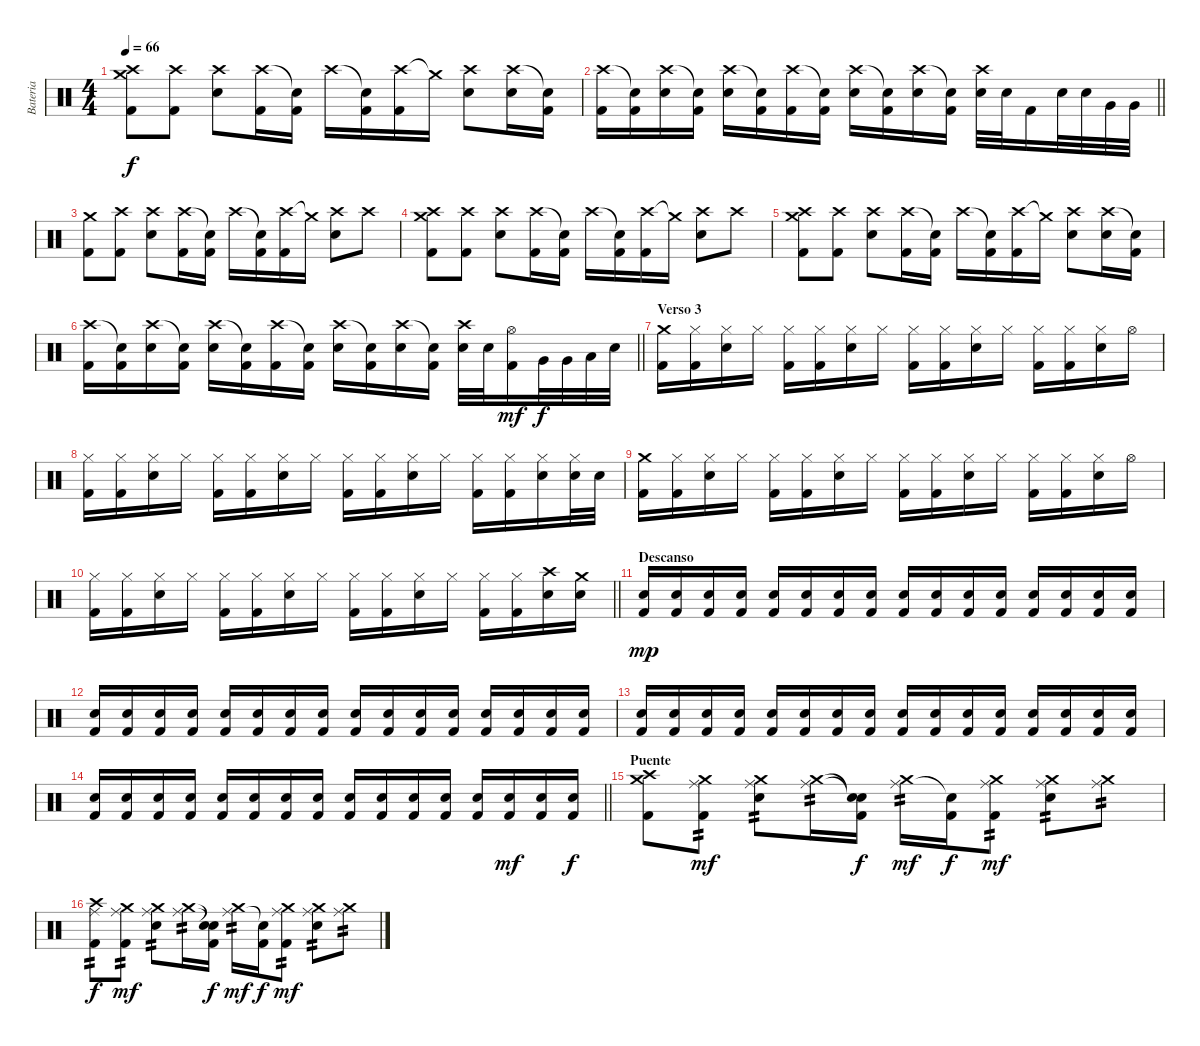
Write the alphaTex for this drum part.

\track ("Bateria" "Bateria") {instrument percussion}
\staff {score}
\articulation defaults
\ts (4 4)
\tempo 66
\clef neutral
\ks c
("Crash high (hit)" "Crash medium (hit)" "Kick (hit) 2").8{dy f} ("Crash high (hit)" "Kick (hit) 2").8 ("Crash high (hit)" "Electric Snare (hit)").8 ("Crash high (hit)" "Kick (hit) 2").16 ("Snare (hit)"{t} "Kick (hit) 2").16 "Crash high (hit)".16 ("Snare (hit)"{t} "Kick (hit) 2").16 ("Crash high (hit)" "Kick (hit) 2").16 "Crash medium (hit)"{t}.16 ("Crash high (hit)" "Electric Snare (hit)").8 ("Crash high (hit)" "Electric Snare (hit)").16 ("Snare (hit)"{t} "Kick (hit) 2").16 |
\barLineRight lightlight
("Crash high (hit)" "Kick (hit) 2").16 ("Snare (hit)"{t} "Kick (hit) 2").16 ("Crash high (hit)" "Electric Snare (hit)").16 ("Snare (hit)"{t} "Kick (hit) 2").16 ("Crash high (hit)" "Electric Snare (hit)").16 ("Snare (hit)"{t} "Kick (hit) 2").16 ("Crash high (hit)" "Kick (hit) 2").16 ("Snare (hit)"{t} "Kick (hit) 2").16 ("Crash high (hit)" "Electric Snare (hit)").16 ("Snare (hit)"{t} "Kick (hit) 2").16 ("Crash high (hit)" "Electric Snare (hit)").16 ("Snare (hit)"{t} "Kick (hit) 2").16 ("Crash high (hit)" "Electric Snare (hit)").32 "Electric Snare (hit)".32 "Kick (hit) 2".16 "Electric Snare (hit)".32 "Electric Snare (hit)".32 "Very Low Tom (hit)".32 "Very Low Tom (hit)".32 |
("Crash medium (hit)" "Kick (hit) 2").8 ("Crash high (hit)" "Kick (hit) 2").8 ("Crash high (hit)" "Electric Snare (hit)").8 ("Crash high (hit)" "Kick (hit) 2").16 ("Snare (hit)"{t} "Kick (hit) 2").16 "Crash high (hit)".16 ("Snare (hit)"{t} "Kick (hit) 2").16 ("Crash high (hit)" "Kick (hit) 2").16 "Crash medium (hit)"{t}.16 ("Crash high (hit)" "Electric Snare (hit)").8 "Crash high (hit)".8 |
("Crash high (hit)" "Crash medium (hit)" "Kick (hit) 2").8 ("Crash high (hit)" "Kick (hit) 2").8 ("Crash high (hit)" "Electric Snare (hit)").8 ("Crash high (hit)" "Kick (hit) 2").16 ("Snare (hit)"{t} "Kick (hit) 2").16 "Crash high (hit)".16 ("Snare (hit)"{t} "Kick (hit) 2").16 ("Crash high (hit)" "Kick (hit) 2").16 "Crash medium (hit)"{t}.16 ("Crash high (hit)" "Electric Snare (hit)").8 "Crash high (hit)".8 |
("Crash high (hit)" "Crash medium (hit)" "Kick (hit) 2").8 ("Crash high (hit)" "Kick (hit) 2").8 ("Crash high (hit)" "Electric Snare (hit)").8 ("Crash high (hit)" "Kick (hit) 2").16 ("Snare (hit)"{t} "Kick (hit) 2").16 "Crash high (hit)".16 ("Snare (hit)"{t} "Kick (hit) 2").16 ("Crash high (hit)" "Kick (hit) 2").16 "Crash medium (hit)"{t}.16 ("Crash high (hit)" "Electric Snare (hit)").8 ("Crash high (hit)" "Electric Snare (hit)").16 ("Snare (hit)"{t} "Kick (hit) 2").16 |
\barLineRight lightlight
("Crash high (hit)" "Kick (hit) 2").16 ("Snare (hit)"{t} "Kick (hit) 2").16 ("Crash high (hit)" "Electric Snare (hit)").16 ("Snare (hit)"{t} "Kick (hit) 2").16 ("Crash high (hit)" "Electric Snare (hit)").16 ("Snare (hit)"{t} "Kick (hit) 2").16 ("Crash high (hit)" "Kick (hit) 2").16 ("Snare (hit)"{t} "Kick (hit) 2").16 ("Crash high (hit)" "Electric Snare (hit)").16 ("Snare (hit)"{t} "Kick (hit) 2").16 ("Crash high (hit)" "Electric Snare (hit)").16 ("Snare (hit)"{t} "Kick (hit) 2").16 ("Crash high (hit)" "Electric Snare (hit)").32 "Electric Snare (hit)".32 ("Hi-Hat (open)" "Kick (hit) 2").16{dy mf} "Very Low Tom (hit)".32{dy f} "Very Low Tom (hit)".32 "Low Floor Tom (hit)".32 "Electric Snare (hit)".32 |
\section ("" "Verso 3")
("Crash medium (hit)" "Kick (hit) 2").16 ("Hi-Hat (closed)" "Kick (hit) 2").16 ("Hi-Hat (closed)" "Electric Snare (hit)").16 "Hi-Hat (closed)".16 ("Hi-Hat (closed)" "Kick (hit) 2").16 ("Hi-Hat (closed)" "Kick (hit) 2").16 ("Hi-Hat (closed)" "Electric Snare (hit)").16 "Hi-Hat (closed)".16 ("Hi-Hat (closed)" "Kick (hit) 2").16 ("Hi-Hat (closed)" "Kick (hit) 2").16 ("Hi-Hat (closed)" "Electric Snare (hit)").16 "Hi-Hat (closed)".16 ("Hi-Hat (closed)" "Kick (hit) 2").16 ("Hi-Hat (closed)" "Kick (hit) 2").16 ("Hi-Hat (closed)" "Electric Snare (hit)").16 "Hi-Hat (open)".16 |
("Hi-Hat (closed)" "Kick (hit) 2").16 ("Hi-Hat (closed)" "Kick (hit) 2").16 ("Hi-Hat (closed)" "Electric Snare (hit)").16 "Hi-Hat (closed)".16 ("Hi-Hat (closed)" "Kick (hit) 2").16 ("Hi-Hat (closed)" "Kick (hit) 2").16 ("Hi-Hat (closed)" "Electric Snare (hit)").16 "Hi-Hat (closed)".16 ("Hi-Hat (closed)" "Kick (hit) 2").16 ("Hi-Hat (closed)" "Kick (hit) 2").16 ("Hi-Hat (closed)" "Electric Snare (hit)").16 "Hi-Hat (closed)".16 ("Hi-Hat (closed)" "Kick (hit) 2").16 ("Hi-Hat (closed)" "Kick (hit) 2").16 ("Hi-Hat (closed)" "Electric Snare (hit)").16 ("Hi-Hat (closed)" "Electric Snare (hit)").32 "Electric Snare (hit)".32 |
("Crash medium (hit)" "Kick (hit) 2").16 ("Hi-Hat (closed)" "Kick (hit) 2").16 ("Hi-Hat (closed)" "Electric Snare (hit)").16 "Hi-Hat (closed)".16 ("Hi-Hat (closed)" "Kick (hit) 2").16 ("Hi-Hat (closed)" "Kick (hit) 2").16 ("Hi-Hat (closed)" "Electric Snare (hit)").16 "Hi-Hat (closed)".16 ("Hi-Hat (closed)" "Kick (hit) 2").16 ("Hi-Hat (closed)" "Kick (hit) 2").16 ("Hi-Hat (closed)" "Electric Snare (hit)").16 "Hi-Hat (closed)".16 ("Hi-Hat (closed)" "Kick (hit) 2").16 ("Hi-Hat (closed)" "Kick (hit) 2").16 ("Hi-Hat (closed)" "Electric Snare (hit)").16 "Hi-Hat (open)".16 |
\barLineRight lightlight
("Hi-Hat (closed)" "Kick (hit) 2").16 ("Hi-Hat (closed)" "Kick (hit) 2").16 ("Hi-Hat (closed)" "Electric Snare (hit)").16 "Hi-Hat (closed)".16 ("Hi-Hat (closed)" "Kick (hit) 2").16 ("Hi-Hat (closed)" "Kick (hit) 2").16 ("Hi-Hat (closed)" "Electric Snare (hit)").16 "Hi-Hat (closed)".16 ("Hi-Hat (closed)" "Kick (hit) 2").16 ("Hi-Hat (closed)" "Kick (hit) 2").16 ("Hi-Hat (closed)" "Electric Snare (hit)").16 "Hi-Hat (closed)".16 ("Hi-Hat (closed)" "Kick (hit) 2").16 ("Hi-Hat (closed)" "Kick (hit) 2").16 ("Crash high (hit)" "Electric Snare (hit)").16 ("Crash medium (hit)" "Electric Snare (hit)").16 |
\section ("" "Descanso")
("Electric Snare (hit)" "Kick (hit) 2").16{dy mp} ("Electric Snare (hit)" "Kick (hit) 2").16 ("Electric Snare (hit)" "Kick (hit) 2").16 ("Electric Snare (hit)" "Kick (hit) 2").16 ("Electric Snare (hit)" "Kick (hit) 2").16 ("Electric Snare (hit)" "Kick (hit) 2").16 ("Electric Snare (hit)" "Kick (hit) 2").16 ("Electric Snare (hit)" "Kick (hit) 2").16 ("Electric Snare (hit)" "Kick (hit) 2").16 ("Electric Snare (hit)" "Kick (hit) 2").16 ("Electric Snare (hit)" "Kick (hit) 2").16 ("Electric Snare (hit)" "Kick (hit) 2").16 ("Electric Snare (hit)" "Kick (hit) 2").16 ("Electric Snare (hit)" "Kick (hit) 2").16 ("Electric Snare (hit)" "Kick (hit) 2").16 ("Electric Snare (hit)" "Kick (hit) 2").16 |
("Electric Snare (hit)" "Kick (hit) 2").16 ("Electric Snare (hit)" "Kick (hit) 2").16 ("Electric Snare (hit)" "Kick (hit) 2").16 ("Electric Snare (hit)" "Kick (hit) 2").16 ("Electric Snare (hit)" "Kick (hit) 2").16 ("Electric Snare (hit)" "Kick (hit) 2").16 ("Electric Snare (hit)" "Kick (hit) 2").16 ("Electric Snare (hit)" "Kick (hit) 2").16 ("Electric Snare (hit)" "Kick (hit) 2").16 ("Electric Snare (hit)" "Kick (hit) 2").16 ("Electric Snare (hit)" "Kick (hit) 2").16 ("Electric Snare (hit)" "Kick (hit) 2").16 ("Electric Snare (hit)" "Kick (hit) 2").16 ("Electric Snare (hit)" "Kick (hit) 2").16 ("Electric Snare (hit)" "Kick (hit) 2").16 ("Electric Snare (hit)" "Kick (hit) 2").16 |
("Electric Snare (hit)" "Kick (hit) 2").16 ("Electric Snare (hit)" "Kick (hit) 2").16 ("Electric Snare (hit)" "Kick (hit) 2").16 ("Electric Snare (hit)" "Kick (hit) 2").16 ("Electric Snare (hit)" "Kick (hit) 2").16 ("Electric Snare (hit)" "Kick (hit) 2").16 ("Electric Snare (hit)" "Kick (hit) 2").16 ("Electric Snare (hit)" "Kick (hit) 2").16 ("Electric Snare (hit)" "Kick (hit) 2").16 ("Electric Snare (hit)" "Kick (hit) 2").16 ("Electric Snare (hit)" "Kick (hit) 2").16 ("Electric Snare (hit)" "Kick (hit) 2").16 ("Electric Snare (hit)" "Kick (hit) 2").16 ("Electric Snare (hit)" "Kick (hit) 2").16 ("Electric Snare (hit)" "Kick (hit) 2").16 ("Electric Snare (hit)" "Kick (hit) 2").16 |
\barLineRight lightlight
("Electric Snare (hit)" "Kick (hit) 2").16 ("Electric Snare (hit)" "Kick (hit) 2").16 ("Electric Snare (hit)" "Kick (hit) 2").16 ("Electric Snare (hit)" "Kick (hit) 2").16 ("Electric Snare (hit)" "Kick (hit) 2").16 ("Electric Snare (hit)" "Kick (hit) 2").16 ("Electric Snare (hit)" "Kick (hit) 2").16 ("Electric Snare (hit)" "Kick (hit) 2").16 ("Electric Snare (hit)" "Kick (hit) 2").16 ("Electric Snare (hit)" "Kick (hit) 2").16 ("Electric Snare (hit)" "Kick (hit) 2").16 ("Electric Snare (hit)" "Kick (hit) 2").16 ("Electric Snare (hit)" "Kick (hit) 2").16 ("Electric Snare (hit)" "Kick (hit) 2").16{dy mf} ("Electric Snare (hit)" "Kick (hit) 2").16 ("Electric Snare (hit)" "Kick (hit) 2").16{dy f} |
\section ("" "Puente")
("Crash medium (hit)" "Crash high (hit)" "Kick (hit) 2").8 ("Ride (middle)" "Crash medium (hit)" "Kick (hit) 2").8{tp 2 dy mf} ("Ride (middle)" "Crash medium (hit)" "Electric Snare (hit)").8{tp 2} ("Ride (middle)" "Crash medium (hit)").16{tp 2} ("Snare (hit)"{t} "Snare (hit)"{t} "Kick (hit) 2").16{dy f} ("Ride (middle)" "Crash medium (hit)").16{tp 2 dy mf} ("Snare (hit)"{t} "Kick (hit) 2").16{dy f} ("Ride (middle)" "Crash medium (hit)" "Kick (hit) 2").8{tp 2 dy mf} ("Ride (middle)" "Crash medium (hit)" "Electric Snare (hit)").8{tp 2} ("Ride (middle)" "Crash medium (hit)").8{tp 2} |
("Ride (middle)" "Crash high (hit)" "Kick (hit) 2").8{tp 2 dy f} ("Ride (middle)" "Crash medium (hit)" "Kick (hit) 2").8{tp 2 dy mf} ("Ride (middle)" "Crash medium (hit)" "Electric Snare (hit)").8{tp 2} ("Ride (middle)" "Crash medium (hit)").16{tp 2} ("Snare (hit)"{t} "Snare (hit)"{t} "Kick (hit) 2").16{dy f} ("Ride (middle)" "Crash medium (hit)").16{tp 2 dy mf} ("Snare (hit)"{t} "Kick (hit) 2").16{dy f} ("Ride (middle)" "Crash medium (hit)" "Kick (hit) 2").8{tp 2 dy mf} ("Ride (middle)" "Crash medium (hit)" "Electric Snare (hit)").8{tp 2} ("Ride (middle)" "Crash medium (hit)").8{tp 2}
